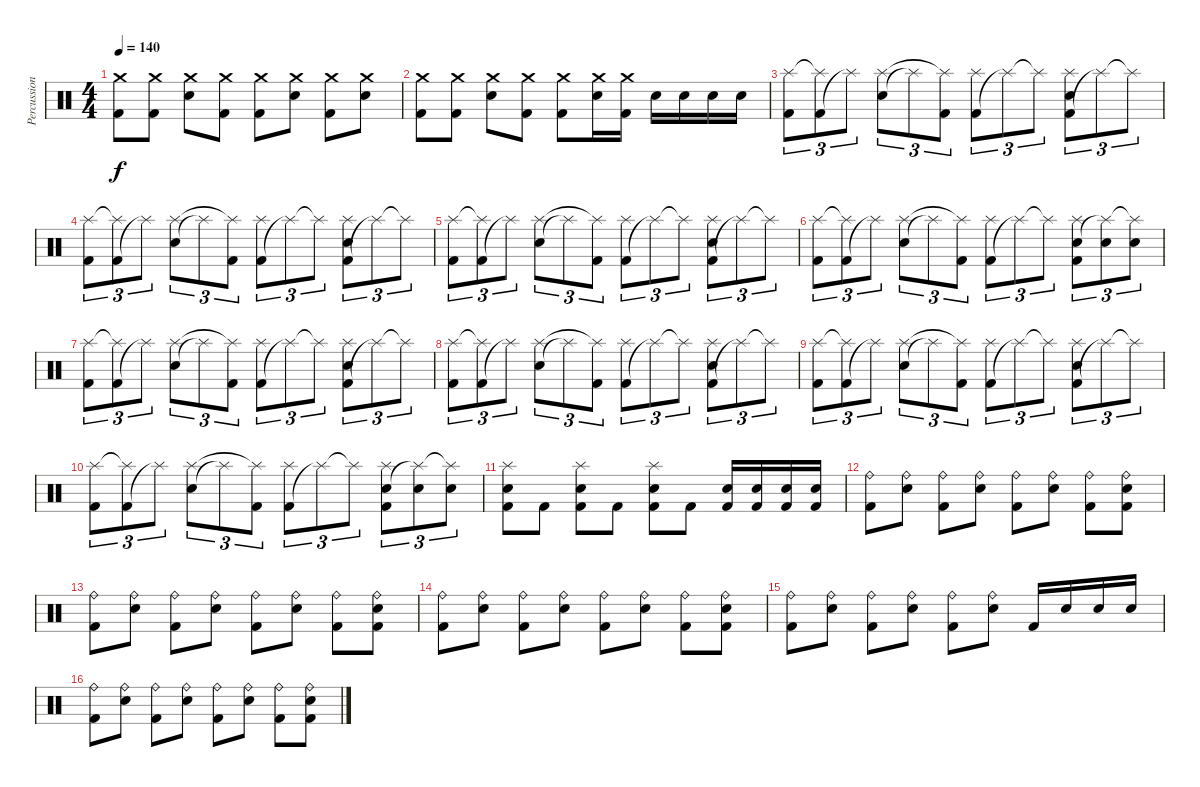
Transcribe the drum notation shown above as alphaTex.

\track ("Percussion" "Percussion") {instrument percussion}
\staff {score}
\articulation defaults
\ts (4 4)
\tempo 140
\clef neutral
\ks c
("Kick (hit) 2" "Crash medium (hit)").8{dy f} ("Kick (hit) 2" "Crash medium (hit)").8 ("Snare (hit) 2" "Crash medium (hit)").8 ("Kick (hit) 2" "Crash medium (hit)").8 ("Kick (hit) 2" "Crash medium (hit)").8 ("Snare (hit) 2" "Crash medium (hit)").8 ("Kick (hit) 2" "Crash medium (hit)").8 ("Snare (hit) 2" "Crash medium (hit)").8 |
("Kick (hit) 2" "Crash medium (hit)").8 ("Kick (hit) 2" "Crash medium (hit)").8 ("Snare (hit) 2" "Crash medium (hit)").8 ("Kick (hit) 2" "Crash medium (hit)").8 ("Kick (hit) 2" "Crash medium (hit)").8 ("Snare (hit) 2" "Crash medium (hit)").16 ("Kick (hit) 2" "Crash medium (hit)").16 "Snare (hit) 2".16 "Snare (hit) 2".16 "Snare (hit) 2".16 "Snare (hit) 2".16 |
("Kick (hit) 2" "Splash (hit)").8{tu (3 2)} ("Kick (hit) 2" "Splash (hit)"{t}).8{tu (3 2)} "Splash (hit)"{t}.8{tu (3 2)} ("Snare (hit) 2" "Splash (hit)").8{tu (3 2)} "Splash (hit)"{t}.8{tu (3 2)} ("Kick (hit) 2" "Splash (hit)"{t}).8{tu (3 2)} ("Kick (hit) 2" "Splash (hit)").8{tu (3 2)} "Splash (hit)"{t}.8{tu (3 2)} "Splash (hit)"{t}.8{tu (3 2)} ("Kick (hit) 2" "Snare (hit) 2" "Splash (hit)").8{tu (3 2)} "Splash (hit)"{t}.8{tu (3 2)} "Splash (hit)"{t}.8{tu (3 2)} |
("Kick (hit) 2" "Splash (hit)").8{tu (3 2)} ("Kick (hit) 2" "Splash (hit)"{t}).8{tu (3 2)} "Splash (hit)"{t}.8{tu (3 2)} ("Snare (hit) 2" "Splash (hit)").8{tu (3 2)} "Splash (hit)"{t}.8{tu (3 2)} ("Kick (hit) 2" "Splash (hit)"{t}).8{tu (3 2)} ("Kick (hit) 2" "Splash (hit)").8{tu (3 2)} "Splash (hit)"{t}.8{tu (3 2)} "Splash (hit)"{t}.8{tu (3 2)} ("Kick (hit) 2" "Snare (hit) 2" "Splash (hit)").8{tu (3 2)} "Splash (hit)"{t}.8{tu (3 2)} "Splash (hit)"{t}.8{tu (3 2)} |
("Kick (hit) 2" "Splash (hit)").8{tu (3 2)} ("Kick (hit) 2" "Splash (hit)"{t}).8{tu (3 2)} "Splash (hit)"{t}.8{tu (3 2)} ("Snare (hit) 2" "Splash (hit)").8{tu (3 2)} "Splash (hit)"{t}.8{tu (3 2)} ("Kick (hit) 2" "Splash (hit)"{t}).8{tu (3 2)} ("Kick (hit) 2" "Splash (hit)").8{tu (3 2)} "Splash (hit)"{t}.8{tu (3 2)} "Splash (hit)"{t}.8{tu (3 2)} ("Kick (hit) 2" "Snare (hit) 2" "Splash (hit)").8{tu (3 2)} "Splash (hit)"{t}.8{tu (3 2)} "Splash (hit)"{t}.8{tu (3 2)} |
("Kick (hit) 2" "Splash (hit)").8{tu (3 2)} ("Kick (hit) 2" "Splash (hit)"{t}).8{tu (3 2)} "Splash (hit)"{t}.8{tu (3 2)} ("Snare (hit) 2" "Splash (hit)").8{tu (3 2)} "Splash (hit)"{t}.8{tu (3 2)} ("Kick (hit) 2" "Splash (hit)"{t}).8{tu (3 2)} ("Kick (hit) 2" "Splash (hit)").8{tu (3 2)} "Splash (hit)"{t}.8{tu (3 2)} "Splash (hit)"{t}.8{tu (3 2)} ("Kick (hit) 2" "Snare (hit) 2" "Splash (hit)").8{tu (3 2)} ("Snare (hit) 2" "Splash (hit)"{t}).8{tu (3 2)} ("Snare (hit) 2" "Splash (hit)"{t}).8{tu (3 2)} |
("Kick (hit) 2" "Splash (hit)").8{tu (3 2)} ("Kick (hit) 2" "Splash (hit)"{t}).8{tu (3 2)} "Splash (hit)"{t}.8{tu (3 2)} ("Snare (hit) 2" "Splash (hit)").8{tu (3 2)} "Splash (hit)"{t}.8{tu (3 2)} ("Kick (hit) 2" "Splash (hit)"{t}).8{tu (3 2)} ("Kick (hit) 2" "Splash (hit)").8{tu (3 2)} "Splash (hit)"{t}.8{tu (3 2)} "Splash (hit)"{t}.8{tu (3 2)} ("Kick (hit) 2" "Snare (hit) 2" "Splash (hit)").8{tu (3 2)} "Splash (hit)"{t}.8{tu (3 2)} "Splash (hit)"{t}.8{tu (3 2)} |
("Kick (hit) 2" "Splash (hit)").8{tu (3 2)} ("Kick (hit) 2" "Splash (hit)"{t}).8{tu (3 2)} "Splash (hit)"{t}.8{tu (3 2)} ("Snare (hit) 2" "Splash (hit)").8{tu (3 2)} "Splash (hit)"{t}.8{tu (3 2)} ("Kick (hit) 2" "Splash (hit)"{t}).8{tu (3 2)} ("Kick (hit) 2" "Splash (hit)").8{tu (3 2)} "Splash (hit)"{t}.8{tu (3 2)} "Splash (hit)"{t}.8{tu (3 2)} ("Kick (hit) 2" "Snare (hit) 2" "Splash (hit)").8{tu (3 2)} "Splash (hit)"{t}.8{tu (3 2)} "Splash (hit)"{t}.8{tu (3 2)} |
("Kick (hit) 2" "Splash (hit)").8{tu (3 2)} ("Kick (hit) 2" "Splash (hit)"{t}).8{tu (3 2)} "Splash (hit)"{t}.8{tu (3 2)} ("Snare (hit) 2" "Splash (hit)").8{tu (3 2)} "Splash (hit)"{t}.8{tu (3 2)} ("Kick (hit) 2" "Splash (hit)"{t}).8{tu (3 2)} ("Kick (hit) 2" "Splash (hit)").8{tu (3 2)} "Splash (hit)"{t}.8{tu (3 2)} "Splash (hit)"{t}.8{tu (3 2)} ("Kick (hit) 2" "Snare (hit) 2" "Splash (hit)").8{tu (3 2)} "Splash (hit)"{t}.8{tu (3 2)} "Splash (hit)"{t}.8{tu (3 2)} |
("Kick (hit) 2" "Splash (hit)").8{tu (3 2)} ("Kick (hit) 2" "Splash (hit)"{t}).8{tu (3 2)} "Splash (hit)"{t}.8{tu (3 2)} ("Snare (hit) 2" "Splash (hit)").8{tu (3 2)} "Splash (hit)"{t}.8{tu (3 2)} ("Kick (hit) 2" "Splash (hit)"{t}).8{tu (3 2)} ("Kick (hit) 2" "Splash (hit)").8{tu (3 2)} "Splash (hit)"{t}.8{tu (3 2)} "Splash (hit)"{t}.8{tu (3 2)} ("Kick (hit) 2" "Snare (hit) 2" "Splash (hit)").8{tu (3 2)} ("Snare (hit) 2" "Splash (hit)"{t}).8{tu (3 2)} ("Snare (hit) 2" "Splash (hit)"{t}).8{tu (3 2)} |
("Kick (hit) 2" "Snare (hit) 2" "Splash (hit)").8 "Kick (hit) 2".8 ("Kick (hit) 2" "Snare (hit) 2" "Splash (hit)").8 "Kick (hit) 2".8 ("Kick (hit) 2" "Snare (hit) 2" "Splash (hit)").8 "Kick (hit) 2".8 ("Kick (hit) 2" "Snare (hit) 2").16 ("Kick (hit) 2" "Snare (hit) 2").16 ("Kick (hit) 2" "Snare (hit) 2").16 ("Kick (hit) 2" "Snare (hit) 2").16 |
("Kick (hit) 2" "Ride (bell)").8 ("Snare (hit) 2" "Ride (bell)").8 ("Kick (hit) 2" "Ride (bell)").8 ("Snare (hit) 2" "Ride (bell)").8 ("Kick (hit) 2" "Ride (bell)").8 ("Snare (hit) 2" "Ride (bell)").8 ("Kick (hit) 2" "Ride (bell)").8 ("Kick (hit) 2" "Snare (hit) 2" "Ride (bell)").8 |
("Kick (hit) 2" "Ride (bell)").8 ("Snare (hit) 2" "Ride (bell)").8 ("Kick (hit) 2" "Ride (bell)").8 ("Snare (hit) 2" "Ride (bell)").8 ("Kick (hit) 2" "Ride (bell)").8 ("Snare (hit) 2" "Ride (bell)").8 ("Kick (hit) 2" "Ride (bell)").8 ("Kick (hit) 2" "Snare (hit) 2" "Ride (bell)").8 |
("Kick (hit) 2" "Ride (bell)").8 ("Snare (hit) 2" "Ride (bell)").8 ("Kick (hit) 2" "Ride (bell)").8 ("Snare (hit) 2" "Ride (bell)").8 ("Kick (hit) 2" "Ride (bell)").8 ("Snare (hit) 2" "Ride (bell)").8 ("Kick (hit) 2" "Ride (bell)").8 ("Kick (hit) 2" "Snare (hit) 2" "Ride (bell)").8 |
("Kick (hit) 2" "Ride (bell)").8 ("Snare (hit) 2" "Ride (bell)").8 ("Kick (hit) 2" "Ride (bell)").8 ("Snare (hit) 2" "Ride (bell)").8 ("Kick (hit) 2" "Ride (bell)").8 ("Snare (hit) 2" "Ride (bell)").8 "Kick (hit) 2".16 "Snare (hit) 2".16 "Snare (hit) 2".16 "Snare (hit) 2".16 |
("Kick (hit) 2" "Ride (bell)").8 ("Snare (hit) 2" "Ride (bell)").8 ("Kick (hit) 2" "Ride (bell)").8 ("Snare (hit) 2" "Ride (bell)").8 ("Kick (hit) 2" "Ride (bell)").8 ("Snare (hit) 2" "Ride (bell)").8 ("Kick (hit) 2" "Ride (bell)").8 ("Kick (hit) 2" "Snare (hit) 2" "Ride (bell)").8
